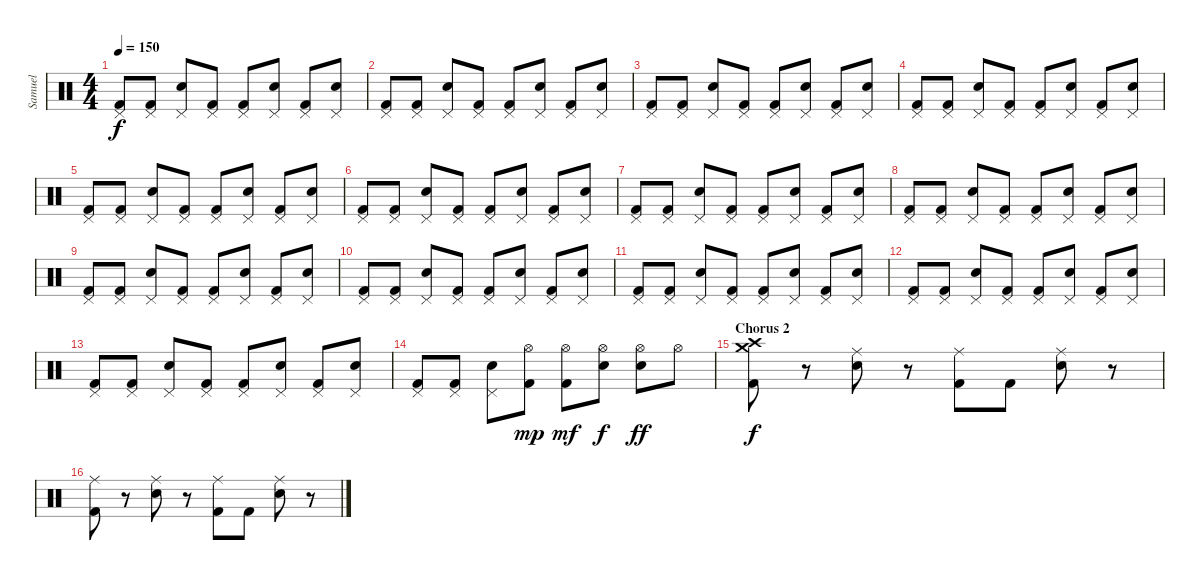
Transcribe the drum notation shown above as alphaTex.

\track ("Samuel" "Samuel") {instrument percussion}
\staff {score}
\articulation defaults
\ts (4 4)
\tempo 150
\clef neutral
\ks c
("Pedal Hi-Hat (hit)" "Kick (hit) 2").8{dy f} ("Pedal Hi-Hat (hit)" "Kick (hit) 2").8 ("Pedal Hi-Hat (hit)" "Snare (hit) 2").8 ("Pedal Hi-Hat (hit)" "Kick (hit) 2").8 ("Pedal Hi-Hat (hit)" "Kick (hit) 2").8 ("Pedal Hi-Hat (hit)" "Snare (hit) 2").8 ("Pedal Hi-Hat (hit)" "Kick (hit) 2").8 ("Pedal Hi-Hat (hit)" "Snare (hit) 2").8 |
("Pedal Hi-Hat (hit)" "Kick (hit) 2").8 ("Pedal Hi-Hat (hit)" "Kick (hit) 2").8 ("Pedal Hi-Hat (hit)" "Snare (hit) 2").8 ("Pedal Hi-Hat (hit)" "Kick (hit) 2").8 ("Pedal Hi-Hat (hit)" "Kick (hit) 2").8 ("Pedal Hi-Hat (hit)" "Snare (hit) 2").8 ("Pedal Hi-Hat (hit)" "Kick (hit) 2").8 ("Pedal Hi-Hat (hit)" "Snare (hit) 2").8 |
("Pedal Hi-Hat (hit)" "Kick (hit) 2").8 ("Pedal Hi-Hat (hit)" "Kick (hit) 2").8 ("Pedal Hi-Hat (hit)" "Snare (hit) 2").8 ("Pedal Hi-Hat (hit)" "Kick (hit) 2").8 ("Pedal Hi-Hat (hit)" "Kick (hit) 2").8 ("Pedal Hi-Hat (hit)" "Snare (hit) 2").8 ("Pedal Hi-Hat (hit)" "Kick (hit) 2").8 ("Pedal Hi-Hat (hit)" "Snare (hit) 2").8 |
("Pedal Hi-Hat (hit)" "Kick (hit) 2").8 ("Pedal Hi-Hat (hit)" "Kick (hit) 2").8 ("Pedal Hi-Hat (hit)" "Snare (hit) 2").8 ("Pedal Hi-Hat (hit)" "Kick (hit) 2").8 ("Pedal Hi-Hat (hit)" "Kick (hit) 2").8 ("Pedal Hi-Hat (hit)" "Snare (hit) 2").8 ("Pedal Hi-Hat (hit)" "Kick (hit) 2").8 ("Pedal Hi-Hat (hit)" "Snare (hit) 2").8 |
("Pedal Hi-Hat (hit)" "Kick (hit) 2").8 ("Pedal Hi-Hat (hit)" "Kick (hit) 2").8 ("Pedal Hi-Hat (hit)" "Snare (hit) 2").8 ("Pedal Hi-Hat (hit)" "Kick (hit) 2").8 ("Pedal Hi-Hat (hit)" "Kick (hit) 2").8 ("Pedal Hi-Hat (hit)" "Snare (hit) 2").8 ("Pedal Hi-Hat (hit)" "Kick (hit) 2").8 ("Pedal Hi-Hat (hit)" "Snare (hit) 2").8 |
("Pedal Hi-Hat (hit)" "Kick (hit) 2").8 ("Pedal Hi-Hat (hit)" "Kick (hit) 2").8 ("Pedal Hi-Hat (hit)" "Snare (hit) 2").8 ("Pedal Hi-Hat (hit)" "Kick (hit) 2").8 ("Pedal Hi-Hat (hit)" "Kick (hit) 2").8 ("Pedal Hi-Hat (hit)" "Snare (hit) 2").8 ("Pedal Hi-Hat (hit)" "Kick (hit) 2").8 ("Pedal Hi-Hat (hit)" "Snare (hit) 2").8 |
("Pedal Hi-Hat (hit)" "Kick (hit) 2").8 ("Pedal Hi-Hat (hit)" "Kick (hit) 2").8 ("Pedal Hi-Hat (hit)" "Snare (hit) 2").8 ("Pedal Hi-Hat (hit)" "Kick (hit) 2").8 ("Pedal Hi-Hat (hit)" "Kick (hit) 2").8 ("Pedal Hi-Hat (hit)" "Snare (hit) 2").8 ("Pedal Hi-Hat (hit)" "Kick (hit) 2").8 ("Pedal Hi-Hat (hit)" "Snare (hit) 2").8 |
("Pedal Hi-Hat (hit)" "Kick (hit) 2").8 ("Pedal Hi-Hat (hit)" "Kick (hit) 2").8 ("Pedal Hi-Hat (hit)" "Snare (hit) 2").8 ("Pedal Hi-Hat (hit)" "Kick (hit) 2").8 ("Pedal Hi-Hat (hit)" "Kick (hit) 2").8 ("Pedal Hi-Hat (hit)" "Snare (hit) 2").8 ("Pedal Hi-Hat (hit)" "Kick (hit) 2").8 ("Pedal Hi-Hat (hit)" "Snare (hit) 2").8 |
("Pedal Hi-Hat (hit)" "Kick (hit) 2").8 ("Pedal Hi-Hat (hit)" "Kick (hit) 2").8 ("Pedal Hi-Hat (hit)" "Snare (hit) 2").8 ("Pedal Hi-Hat (hit)" "Kick (hit) 2").8 ("Pedal Hi-Hat (hit)" "Kick (hit) 2").8 ("Pedal Hi-Hat (hit)" "Snare (hit) 2").8 ("Pedal Hi-Hat (hit)" "Kick (hit) 2").8 ("Pedal Hi-Hat (hit)" "Snare (hit) 2").8 |
("Pedal Hi-Hat (hit)" "Kick (hit) 2").8 ("Pedal Hi-Hat (hit)" "Kick (hit) 2").8 ("Pedal Hi-Hat (hit)" "Snare (hit) 2").8 ("Pedal Hi-Hat (hit)" "Kick (hit) 2").8 ("Pedal Hi-Hat (hit)" "Kick (hit) 2").8 ("Pedal Hi-Hat (hit)" "Snare (hit) 2").8 ("Pedal Hi-Hat (hit)" "Kick (hit) 2").8 ("Pedal Hi-Hat (hit)" "Snare (hit) 2").8 |
("Pedal Hi-Hat (hit)" "Kick (hit) 2").8 ("Pedal Hi-Hat (hit)" "Kick (hit) 2").8 ("Pedal Hi-Hat (hit)" "Snare (hit) 2").8 ("Pedal Hi-Hat (hit)" "Kick (hit) 2").8 ("Pedal Hi-Hat (hit)" "Kick (hit) 2").8 ("Pedal Hi-Hat (hit)" "Snare (hit) 2").8 ("Pedal Hi-Hat (hit)" "Kick (hit) 2").8 ("Pedal Hi-Hat (hit)" "Snare (hit) 2").8 |
("Pedal Hi-Hat (hit)" "Kick (hit) 2").8 ("Pedal Hi-Hat (hit)" "Kick (hit) 2").8 ("Pedal Hi-Hat (hit)" "Snare (hit) 2").8 ("Pedal Hi-Hat (hit)" "Kick (hit) 2").8 ("Pedal Hi-Hat (hit)" "Kick (hit) 2").8 ("Pedal Hi-Hat (hit)" "Snare (hit) 2").8 ("Pedal Hi-Hat (hit)" "Kick (hit) 2").8 ("Pedal Hi-Hat (hit)" "Snare (hit) 2").8 |
("Pedal Hi-Hat (hit)" "Kick (hit) 2").8 ("Pedal Hi-Hat (hit)" "Kick (hit) 2").8 ("Pedal Hi-Hat (hit)" "Snare (hit) 2").8 ("Pedal Hi-Hat (hit)" "Kick (hit) 2").8 ("Pedal Hi-Hat (hit)" "Kick (hit) 2").8 ("Pedal Hi-Hat (hit)" "Snare (hit) 2").8 ("Pedal Hi-Hat (hit)" "Kick (hit) 2").8 ("Pedal Hi-Hat (hit)" "Snare (hit) 2").8 |
("Pedal Hi-Hat (hit)" "Kick (hit) 2").8 ("Pedal Hi-Hat (hit)" "Kick (hit) 2").8 ("Pedal Hi-Hat (hit)" "Snare (hit) 2").8 ("Hi-Hat (open)" "Kick (hit) 2").8{dy mp} ("Hi-Hat (open)" "Kick (hit) 2").8{dy mf} ("Hi-Hat (open)" "Snare (hit) 2").8{dy f} ("Hi-Hat (open)" "Snare (hit) 2").8{dy ff} "Hi-Hat (open)".8 |
\section ("" "Chorus 2")
("Crash medium (hit)" "Crash high (hit)" "Kick (hit) 2").8{dy f} r.8 ("Ride (middle)" "Snare (hit) 2").8 r.8 ("Ride (middle)" "Kick (hit) 2").8 "Kick (hit) 2".8 ("Ride (middle)" "Snare (hit) 2").8 r.8 |
("Ride (middle)" "Kick (hit) 2").8 r.8 ("Ride (middle)" "Snare (hit) 2").8 r.8 ("Ride (middle)" "Kick (hit) 2").8 "Kick (hit) 2".8 ("Ride (middle)" "Snare (hit) 2").8 r.8
